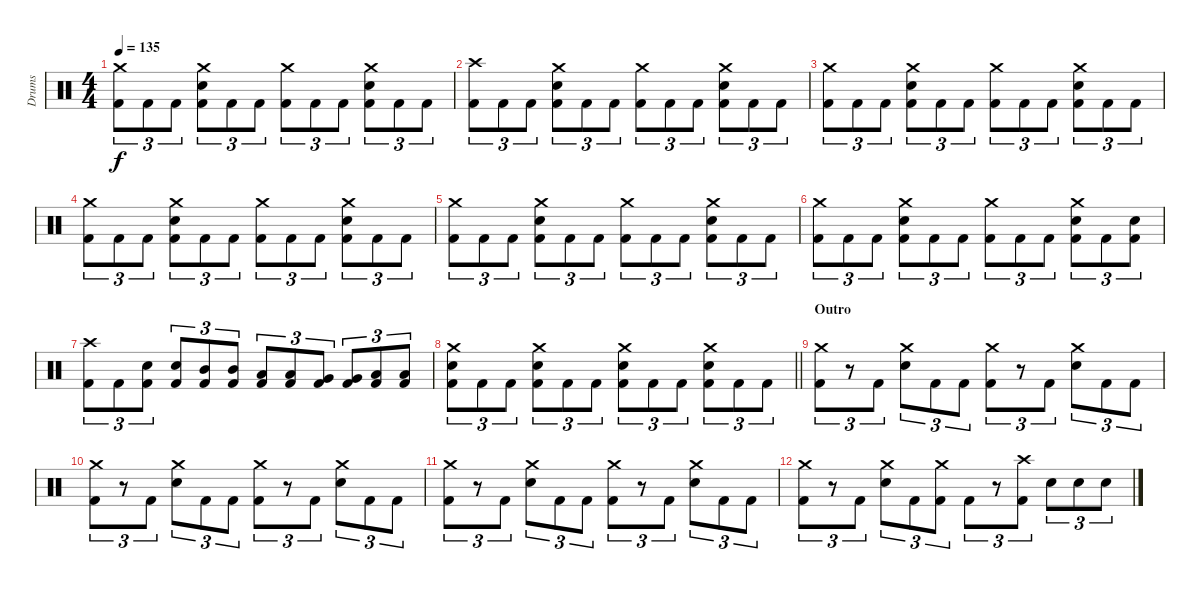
\track ("Drums" "Drums") {instrument percussion}
\staff {score}
\articulation defaults
\ts (4 4)
\tempo 135
\clef neutral
\ks c
("Crash medium (hit)" "Kick (hit) 2").8{tu (3 2) dy f} "Kick (hit) 2".8{tu (3 2)} "Kick (hit) 2".8{tu (3 2)} ("Crash medium (hit)" "Electric Snare (hit)" "Kick (hit) 2").8{tu (3 2)} "Kick (hit) 2".8{tu (3 2)} "Kick (hit) 2".8{tu (3 2)} ("Crash medium (hit)" "Kick (hit) 2").8{tu (3 2)} "Kick (hit) 2".8{tu (3 2)} "Kick (hit) 2".8{tu (3 2)} ("Crash medium (hit)" "Electric Snare (hit)" "Kick (hit) 2").8{tu (3 2)} "Kick (hit) 2".8{tu (3 2)} "Kick (hit) 2".8{tu (3 2)} |
("Crash high (hit)" "Kick (hit) 2").8{tu (3 2)} "Kick (hit) 2".8{tu (3 2)} "Kick (hit) 2".8{tu (3 2)} ("Crash medium (hit)" "Electric Snare (hit)" "Kick (hit) 2").8{tu (3 2)} "Kick (hit) 2".8{tu (3 2)} "Kick (hit) 2".8{tu (3 2)} ("Crash medium (hit)" "Kick (hit) 2").8{tu (3 2)} "Kick (hit) 2".8{tu (3 2)} "Kick (hit) 2".8{tu (3 2)} ("Crash medium (hit)" "Electric Snare (hit)" "Kick (hit) 2").8{tu (3 2)} "Kick (hit) 2".8{tu (3 2)} "Kick (hit) 2".8{tu (3 2)} |
("Crash medium (hit)" "Kick (hit) 2").8{tu (3 2)} "Kick (hit) 2".8{tu (3 2)} "Kick (hit) 2".8{tu (3 2)} ("Crash medium (hit)" "Electric Snare (hit)" "Kick (hit) 2").8{tu (3 2)} "Kick (hit) 2".8{tu (3 2)} "Kick (hit) 2".8{tu (3 2)} ("Crash medium (hit)" "Kick (hit) 2").8{tu (3 2)} "Kick (hit) 2".8{tu (3 2)} "Kick (hit) 2".8{tu (3 2)} ("Crash medium (hit)" "Electric Snare (hit)" "Kick (hit) 2").8{tu (3 2)} "Kick (hit) 2".8{tu (3 2)} "Kick (hit) 2".8{tu (3 2)} |
("Crash medium (hit)" "Kick (hit) 2").8{tu (3 2)} "Kick (hit) 2".8{tu (3 2)} "Kick (hit) 2".8{tu (3 2)} ("Crash medium (hit)" "Electric Snare (hit)" "Kick (hit) 2").8{tu (3 2)} "Kick (hit) 2".8{tu (3 2)} "Kick (hit) 2".8{tu (3 2)} ("Crash medium (hit)" "Kick (hit) 2").8{tu (3 2)} "Kick (hit) 2".8{tu (3 2)} "Kick (hit) 2".8{tu (3 2)} ("Crash medium (hit)" "Electric Snare (hit)" "Kick (hit) 2").8{tu (3 2)} "Kick (hit) 2".8{tu (3 2)} "Kick (hit) 2".8{tu (3 2)} |
("Crash medium (hit)" "Kick (hit) 2").8{tu (3 2)} "Kick (hit) 2".8{tu (3 2)} "Kick (hit) 2".8{tu (3 2)} ("Crash medium (hit)" "Electric Snare (hit)" "Kick (hit) 2").8{tu (3 2)} "Kick (hit) 2".8{tu (3 2)} "Kick (hit) 2".8{tu (3 2)} ("Crash medium (hit)" "Kick (hit) 2").8{tu (3 2)} "Kick (hit) 2".8{tu (3 2)} "Kick (hit) 2".8{tu (3 2)} ("Crash medium (hit)" "Electric Snare (hit)" "Kick (hit) 2").8{tu (3 2)} "Kick (hit) 2".8{tu (3 2)} "Kick (hit) 2".8{tu (3 2)} |
("Crash medium (hit)" "Kick (hit) 2").8{tu (3 2)} "Kick (hit) 2".8{tu (3 2)} "Kick (hit) 2".8{tu (3 2)} ("Crash medium (hit)" "Electric Snare (hit)" "Kick (hit) 2").8{tu (3 2)} "Kick (hit) 2".8{tu (3 2)} "Kick (hit) 2".8{tu (3 2)} ("Crash medium (hit)" "Kick (hit) 2").8{tu (3 2)} "Kick (hit) 2".8{tu (3 2)} "Kick (hit) 2".8{tu (3 2)} ("Crash medium (hit)" "Electric Snare (hit)" "Kick (hit) 2").8{tu (3 2)} "Kick (hit) 2".8{tu (3 2)} ("Electric Snare (hit)" "Kick (hit) 2").8{tu (3 2)} |
("Crash high (hit)" "Kick (hit) 2").8{tu (3 2)} "Kick (hit) 2".8{tu (3 2)} ("Electric Snare (hit)" "Kick (hit) 2").8{tu (3 2)} ("Electric Snare (hit)" "Kick (hit) 2").8{tu (3 2)} ("Mid Tom (hit)" "Kick (hit) 2").8{tu (3 2)} ("Mid Tom (hit)" "Kick (hit) 2").8{tu (3 2)} ("Low Tom (hit)" "Kick (hit) 2").8{tu (3 2)} ("Low Tom (hit)" "Kick (hit) 2").8{tu (3 2)} ("Very Low Tom (hit)" "Kick (hit) 2").8{tu (3 2)} ("Very Low Tom (hit)" "Kick (hit) 2").8{tu (3 2)} ("Low Floor Tom (hit)" "Kick (hit) 2").8{tu (3 2)} ("Low Floor Tom (hit)" "Kick (hit) 2").8{tu (3 2)} |
\barLineRight lightlight
("Crash medium (hit)" "Electric Snare (hit)" "Kick (hit) 2").8{tu (3 2)} "Kick (hit) 2".8{tu (3 2)} "Kick (hit) 2".8{tu (3 2)} ("Crash medium (hit)" "Electric Snare (hit)" "Kick (hit) 2").8{tu (3 2)} "Kick (hit) 2".8{tu (3 2)} "Kick (hit) 2".8{tu (3 2)} ("Crash medium (hit)" "Electric Snare (hit)" "Kick (hit) 2").8{tu (3 2)} "Kick (hit) 2".8{tu (3 2)} "Kick (hit) 2".8{tu (3 2)} ("Crash medium (hit)" "Electric Snare (hit)" "Kick (hit) 2").8{tu (3 2)} "Kick (hit) 2".8{tu (3 2)} "Kick (hit) 2".8{tu (3 2)} |
\section ("" "Outro")
("Crash medium (hit)" "Kick (hit) 2").8{tu (3 2)} r.8{tu (3 2)} "Kick (hit) 2".8{tu (3 2)} ("Crash medium (hit)" "Electric Snare (hit)").8{tu (3 2)} "Kick (hit) 2".8{tu (3 2)} "Kick (hit) 2".8{tu (3 2)} ("Crash medium (hit)" "Kick (hit) 2").8{tu (3 2)} r.8{tu (3 2)} "Kick (hit) 2".8{tu (3 2)} ("Crash medium (hit)" "Electric Snare (hit)").8{tu (3 2)} "Kick (hit) 2".8{tu (3 2)} "Kick (hit) 2".8{tu (3 2)} |
("Crash medium (hit)" "Kick (hit) 2").8{tu (3 2)} r.8{tu (3 2)} "Kick (hit) 2".8{tu (3 2)} ("Crash medium (hit)" "Electric Snare (hit)").8{tu (3 2)} "Kick (hit) 2".8{tu (3 2)} "Kick (hit) 2".8{tu (3 2)} ("Crash medium (hit)" "Kick (hit) 2").8{tu (3 2)} r.8{tu (3 2)} "Kick (hit) 2".8{tu (3 2)} ("Crash medium (hit)" "Electric Snare (hit)").8{tu (3 2)} "Kick (hit) 2".8{tu (3 2)} "Kick (hit) 2".8{tu (3 2)} |
("Crash medium (hit)" "Kick (hit) 2").8{tu (3 2)} r.8{tu (3 2)} "Kick (hit) 2".8{tu (3 2)} ("Crash medium (hit)" "Electric Snare (hit)").8{tu (3 2)} "Kick (hit) 2".8{tu (3 2)} "Kick (hit) 2".8{tu (3 2)} ("Crash medium (hit)" "Kick (hit) 2").8{tu (3 2)} r.8{tu (3 2)} "Kick (hit) 2".8{tu (3 2)} ("Crash medium (hit)" "Electric Snare (hit)").8{tu (3 2)} "Kick (hit) 2".8{tu (3 2)} "Kick (hit) 2".8{tu (3 2)} |
("Crash medium (hit)" "Kick (hit) 2").8{tu (3 2)} r.8{tu (3 2)} "Kick (hit) 2".8{tu (3 2)} ("Crash medium (hit)" "Electric Snare (hit)").8{tu (3 2)} "Kick (hit) 2".8{tu (3 2)} ("Crash medium (hit)" "Kick (hit) 2").8{tu (3 2)} "Kick (hit) 2".8{tu (3 2)} r.8{tu (3 2)} ("Crash high (hit)" "Kick (hit) 2").8{tu (3 2)} "Electric Snare (hit)".8{tu (3 2)} "Electric Snare (hit)".8{tu (3 2)} "Electric Snare (hit)".8{tu (3 2)}
